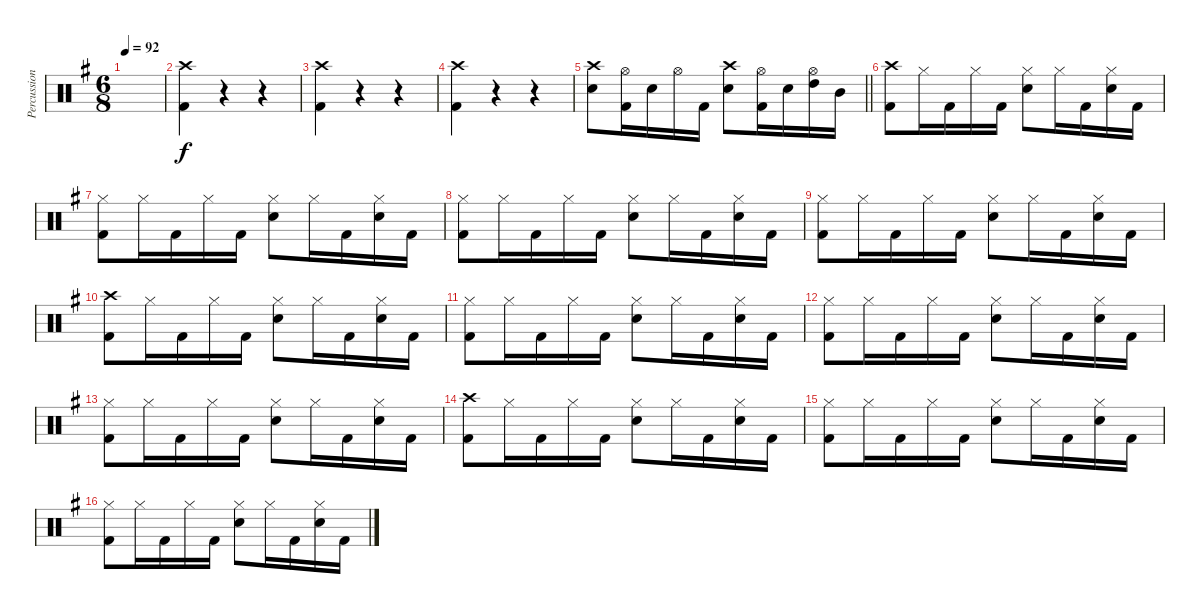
\track ("Percussion" "Percussion") {instrument percussion}
\staff {score}
\articulation defaults
\ts (6 8)
\tempo 92
\clef neutral
\ks g
|
("Crash high (hit)" "Kick (hit) 2").4 r.4 r.4 |
("Crash high (hit)" "Kick (hit) 2").4 r.4 r.4 |
("Kick (hit) 2" "Crash high (hit)").4 r.4 r.4 |
\barLineRight lightlight
("Crash high (hit)" "Electric Snare (hit)").8 ("Kick (hit) 2" "Hi-Hat (open)").16 "Electric Snare (hit)".16 "Hi-Hat (open)".16 "Kick (hit) 2".16 ("Crash high (hit)" "Electric Snare (hit)").8 ("Kick (hit) 2" "Hi-Hat (open)").16 "Electric Snare (hit)".16 ("Hi-Hat (open)" "High Tom (hit)").16 "Mid Tom (hit)".16 |
("Crash high (hit)" "Kick (hit) 2").8 "Hi-Hat (closed)".16 "Kick (hit) 2".16 "Hi-Hat (closed)".16 "Kick (hit) 2".16 ("Hi-Hat (closed)" "Electric Snare (hit)").8 "Hi-Hat (closed)".16 "Kick (hit) 2".16 ("Electric Snare (hit)" "Hi-Hat (closed)").16 "Kick (hit) 2".16 |
("Hi-Hat (closed)" "Kick (hit) 2").8 "Hi-Hat (closed)".16 "Kick (hit) 2".16 "Hi-Hat (closed)".16 "Kick (hit) 2".16 ("Hi-Hat (closed)" "Electric Snare (hit)").8 "Hi-Hat (closed)".16 "Kick (hit) 2".16 ("Electric Snare (hit)" "Hi-Hat (closed)").16 "Kick (hit) 2".16 |
("Hi-Hat (closed)" "Kick (hit) 2").8 "Hi-Hat (closed)".16 "Kick (hit) 2".16 "Hi-Hat (closed)".16 "Kick (hit) 2".16 ("Hi-Hat (closed)" "Electric Snare (hit)").8 "Hi-Hat (closed)".16 "Kick (hit) 2".16 ("Electric Snare (hit)" "Hi-Hat (closed)").16 "Kick (hit) 2".16 |
("Hi-Hat (closed)" "Kick (hit) 2").8 "Hi-Hat (closed)".16 "Kick (hit) 2".16 "Hi-Hat (closed)".16 "Kick (hit) 2".16 ("Hi-Hat (closed)" "Electric Snare (hit)").8 "Hi-Hat (closed)".16 "Kick (hit) 2".16 ("Electric Snare (hit)" "Hi-Hat (closed)").16 "Kick (hit) 2".16 |
("Crash high (hit)" "Kick (hit) 2").8 "Hi-Hat (closed)".16 "Kick (hit) 2".16 "Hi-Hat (closed)".16 "Kick (hit) 2".16 ("Hi-Hat (closed)" "Electric Snare (hit)").8 "Hi-Hat (closed)".16 "Kick (hit) 2".16 ("Electric Snare (hit)" "Hi-Hat (closed)").16 "Kick (hit) 2".16 |
("Hi-Hat (closed)" "Kick (hit) 2").8 "Hi-Hat (closed)".16 "Kick (hit) 2".16 "Hi-Hat (closed)".16 "Kick (hit) 2".16 ("Hi-Hat (closed)" "Electric Snare (hit)").8 "Hi-Hat (closed)".16 "Kick (hit) 2".16 ("Electric Snare (hit)" "Hi-Hat (closed)").16 "Kick (hit) 2".16 |
("Hi-Hat (closed)" "Kick (hit) 2").8 "Hi-Hat (closed)".16 "Kick (hit) 2".16 "Hi-Hat (closed)".16 "Kick (hit) 2".16 ("Hi-Hat (closed)" "Electric Snare (hit)").8 "Hi-Hat (closed)".16 "Kick (hit) 2".16 ("Electric Snare (hit)" "Hi-Hat (closed)").16 "Kick (hit) 2".16 |
("Hi-Hat (closed)" "Kick (hit) 2").8 "Hi-Hat (closed)".16 "Kick (hit) 2".16 "Hi-Hat (closed)".16 "Kick (hit) 2".16 ("Hi-Hat (closed)" "Electric Snare (hit)").8 "Hi-Hat (closed)".16 "Kick (hit) 2".16 ("Electric Snare (hit)" "Hi-Hat (closed)").16 "Kick (hit) 2".16 |
("Crash high (hit)" "Kick (hit) 2").8 "Hi-Hat (closed)".16 "Kick (hit) 2".16 "Hi-Hat (closed)".16 "Kick (hit) 2".16 ("Hi-Hat (closed)" "Electric Snare (hit)").8 "Hi-Hat (closed)".16 "Kick (hit) 2".16 ("Electric Snare (hit)" "Hi-Hat (closed)").16 "Kick (hit) 2".16 |
("Hi-Hat (closed)" "Kick (hit) 2").8 "Hi-Hat (closed)".16 "Kick (hit) 2".16 "Hi-Hat (closed)".16 "Kick (hit) 2".16 ("Hi-Hat (closed)" "Electric Snare (hit)").8 "Hi-Hat (closed)".16 "Kick (hit) 2".16 ("Electric Snare (hit)" "Hi-Hat (closed)").16 "Kick (hit) 2".16 |
("Hi-Hat (closed)" "Kick (hit) 2").8 "Hi-Hat (closed)".16 "Kick (hit) 2".16 "Hi-Hat (closed)".16 "Kick (hit) 2".16 ("Hi-Hat (closed)" "Electric Snare (hit)").8 "Hi-Hat (closed)".16 "Kick (hit) 2".16 ("Electric Snare (hit)" "Hi-Hat (closed)").16 "Kick (hit) 2".16
